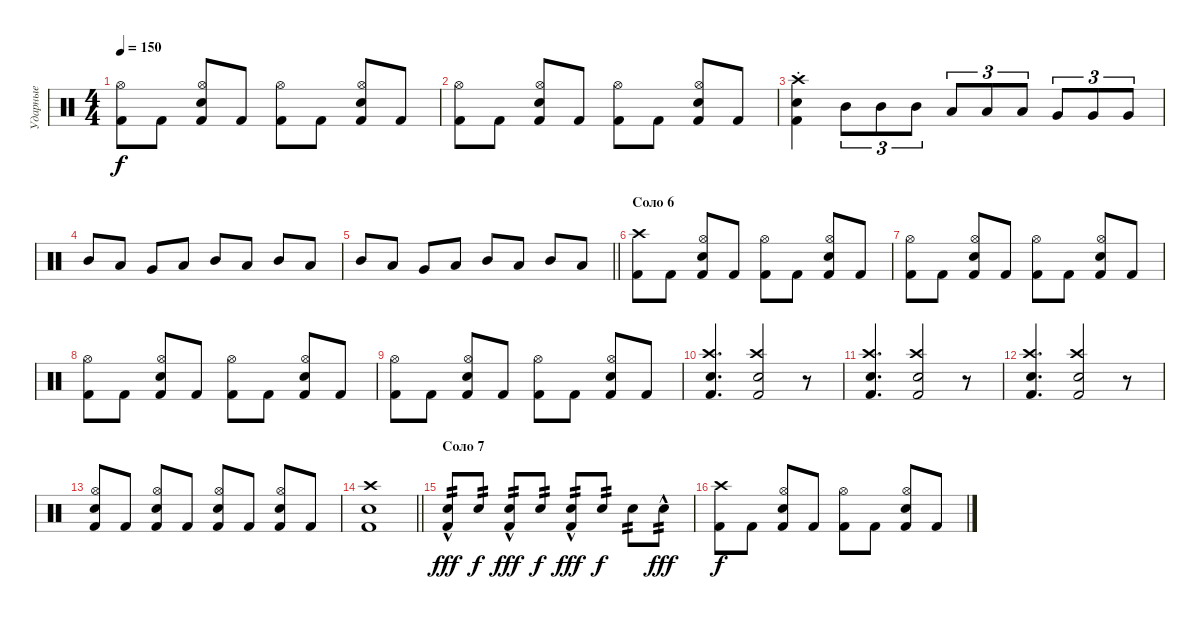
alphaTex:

\track ("Ударные" "Ударные") {instrument percussion}
\staff {score}
\articulation defaults
\ts (4 4)
\tempo 150
\clef neutral
\ks c
("Kick (hit) 2" "Hi-Hat (open)").8{dy f} "Kick (hit) 2".8 ("Snare (hit) 2" "Kick (hit) 2" "Hi-Hat (open)").8 "Kick (hit) 2".8 ("Kick (hit) 2" "Hi-Hat (open)").8 "Kick (hit) 2".8 ("Snare (hit) 2" "Kick (hit) 2" "Hi-Hat (open)").8 "Kick (hit) 2".8 |
("Kick (hit) 2" "Hi-Hat (open)").8 "Kick (hit) 2".8 ("Snare (hit) 2" "Kick (hit) 2" "Hi-Hat (open)").8 "Kick (hit) 2".8 ("Kick (hit) 2" "Hi-Hat (open)").8 "Kick (hit) 2".8 ("Snare (hit) 2" "Kick (hit) 2" "Hi-Hat (open)").8 "Kick (hit) 2".8 |
("Kick (hit) 2"{st} "Snare (hit) 2"{st} "Crash high (hit)"{st}).4 "Mid Tom (hit)".8{tu (3 2)} "Mid Tom (hit)".8{tu (3 2)} "Mid Tom (hit)".8{tu (3 2)} "Low Tom (hit)".8{tu (3 2)} "Low Tom (hit)".8{tu (3 2)} "Low Tom (hit)".8{tu (3 2)} "Very Low Tom (hit)".8{tu (3 2)} "Very Low Tom (hit)".8{tu (3 2)} "Very Low Tom (hit)".8{tu (3 2)} |
"Mid Tom (hit)".8 "Low Tom (hit)".8 "Very Low Tom (hit)".8 "Low Tom (hit)".8 "Mid Tom (hit)".8 "Low Tom (hit)".8 "Mid Tom (hit)".8 "Low Tom (hit)".8 |
\barLineRight lightlight "Mid Tom (hit)".8 "Low Tom (hit)".8 "Very Low Tom (hit)".8 "Low Tom (hit)".8 "Mid Tom (hit)".8 "Low Tom (hit)".8 "Mid Tom (hit)".8 "Low Tom (hit)".8
|
\section ("" "Соло 6")
("Kick (hit) 2" "Crash high (hit)").8 "Kick (hit) 2".8 ("Snare (hit) 2" "Kick (hit) 2" "Hi-Hat (open)").8 "Kick (hit) 2".8 ("Kick (hit) 2" "Hi-Hat (open)").8 "Kick (hit) 2".8 ("Snare (hit) 2" "Kick (hit) 2" "Hi-Hat (open)").8 "Kick (hit) 2".8 |
("Kick (hit) 2" "Hi-Hat (open)").8 "Kick (hit) 2".8 ("Snare (hit) 2" "Kick (hit) 2" "Hi-Hat (open)").8 "Kick (hit) 2".8 ("Kick (hit) 2" "Hi-Hat (open)").8 "Kick (hit) 2".8 ("Snare (hit) 2" "Kick (hit) 2" "Hi-Hat (open)").8 "Kick (hit) 2".8 |
("Kick (hit) 2" "Hi-Hat (open)").8 "Kick (hit) 2".8 ("Snare (hit) 2" "Kick (hit) 2" "Hi-Hat (open)").8 "Kick (hit) 2".8 ("Kick (hit) 2" "Hi-Hat (open)").8 "Kick (hit) 2".8 ("Snare (hit) 2" "Kick (hit) 2" "Hi-Hat (open)").8 "Kick (hit) 2".8 |
("Kick (hit) 2" "Hi-Hat (open)").8 "Kick (hit) 2".8 ("Snare (hit) 2" "Kick (hit) 2" "Hi-Hat (open)").8 "Kick (hit) 2".8 ("Kick (hit) 2" "Hi-Hat (open)").8 "Kick (hit) 2".8 ("Snare (hit) 2" "Kick (hit) 2" "Hi-Hat (open)").8 "Kick (hit) 2".8 |
("Kick (hit) 2" "Crash high (hit)" "Electric Snare (hit)").4{d} ("Kick (hit) 2" "Crash high (hit)" "Electric Snare (hit)").2 r.8 |
("Kick (hit) 2" "Crash high (hit)" "Electric Snare (hit)").4{d} ("Kick (hit) 2" "Crash high (hit)" "Electric Snare (hit)").2 r.8 |
("Kick (hit) 2" "Crash high (hit)" "Electric Snare (hit)").4{d} ("Kick (hit) 2" "Crash high (hit)" "Electric Snare (hit)").2 r.8 |
("Snare (hit) 2" "Kick (hit) 2" "Hi-Hat (open)").8 "Kick (hit) 2".8 ("Snare (hit) 2" "Kick (hit) 2" "Hi-Hat (open)").8 "Kick (hit) 2".8 ("Snare (hit) 2" "Kick (hit) 2" "Hi-Hat (open)").8 "Kick (hit) 2".8 ("Snare (hit) 2" "Kick (hit) 2" "Hi-Hat (open)").8 "Kick (hit) 2".8 |
\barLineRight lightlight
("Kick (hit) 2" "Crash high (hit)" "Electric Snare (hit)").1 |
\section ("" "Соло 7")
("Snare (hit) 2"{hac} "Kick (hit) 2").8{tp 2 dy fff} "Snare (hit) 2".8{tp 2 dy f} ("Snare (hit) 2"{hac} "Kick (hit) 2").8{tp 2 dy fff} "Snare (hit) 2".8{tp 2 dy f} ("Snare (hit) 2"{hac} "Kick (hit) 2").8{tp 2 dy fff} "Snare (hit) 2".8{tp 2 dy f} "Snare (hit) 2".8{tp 2} "Snare (hit) 2"{hac}.8{tp 2 dy fff} |
("Kick (hit) 2" "Crash high (hit)").8{dy f} "Kick (hit) 2".8 ("Snare (hit) 2" "Kick (hit) 2" "Hi-Hat (open)").8 "Kick (hit) 2".8 ("Kick (hit) 2" "Hi-Hat (open)").8 "Kick (hit) 2".8 ("Snare (hit) 2" "Kick (hit) 2" "Hi-Hat (open)").8 "Kick (hit) 2".8
